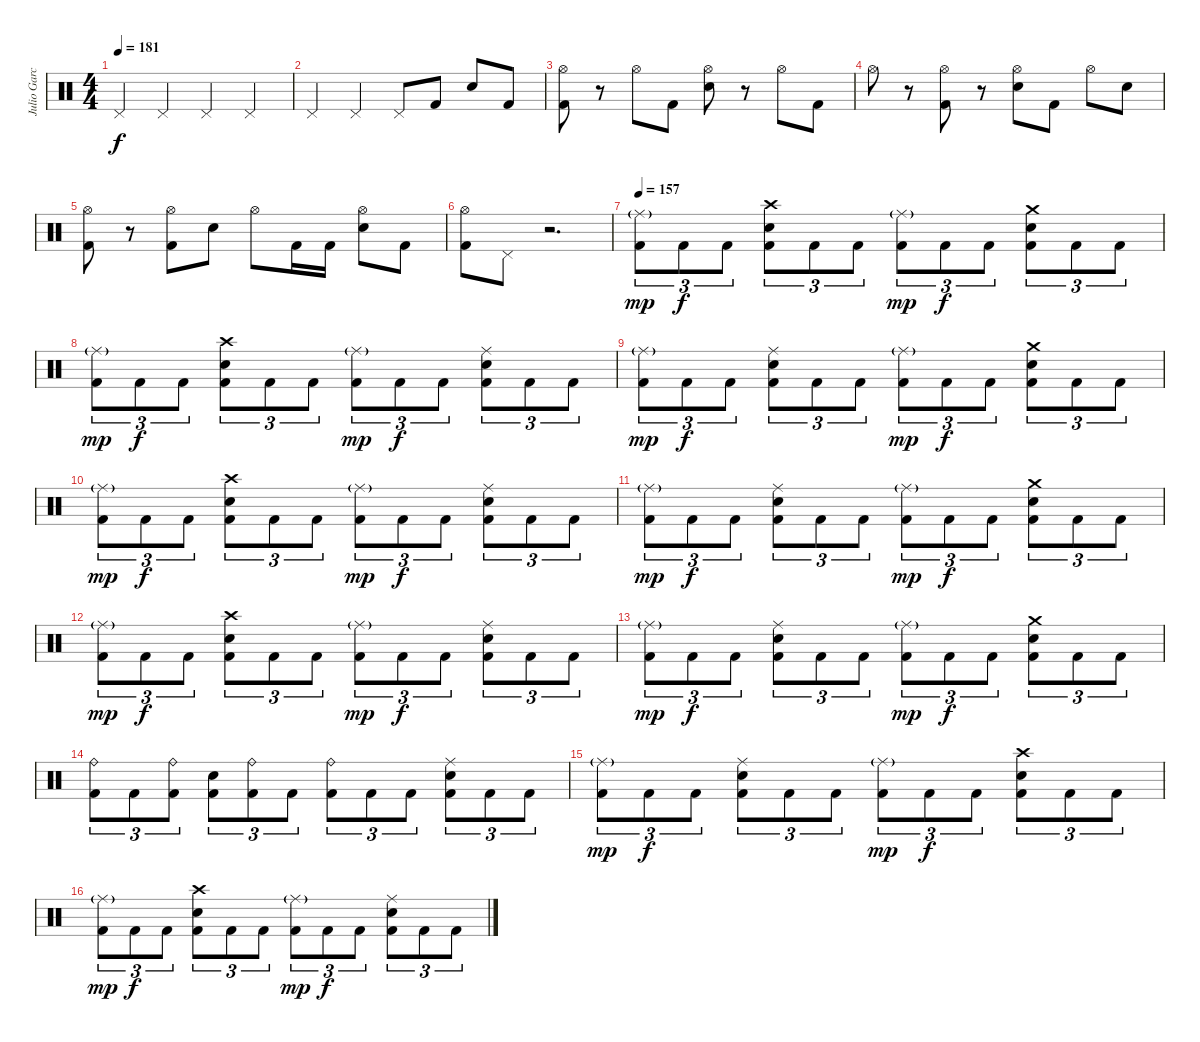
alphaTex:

\track ("Julio Garcia" "Julio Garc") {instrument percussion}
\staff {score}
\articulation defaults
\ts (4 4)
\tempo 181
\clef neutral
\ks c "Pedal Hi-Hat (hit)".4{dy f} "Pedal Hi-Hat (hit)".4 "Pedal Hi-Hat (hit)".4 "Pedal Hi-Hat (hit)".4
|
"Pedal Hi-Hat (hit)".4 "Pedal Hi-Hat (hit)".4 "Pedal Hi-Hat (hit)".8 "Kick (hit) 2".8 "Electric Snare (hit)".8 "Kick (hit) 2".8 |
("Hi-Hat (open)" "Kick (hit) 2").8 r.8 "Hi-Hat (open)".8 "Kick (hit) 2".8 ("Hi-Hat (open)" "Electric Snare (hit)").8 r.8 "Hi-Hat (open)".8 "Kick (hit) 2".8 |
"Hi-Hat (open)".8 r.8 ("Hi-Hat (open)" "Kick (hit) 2").8 r.8 ("Hi-Hat (open)" "Electric Snare (hit)").8 "Kick (hit) 2".8 "Hi-Hat (open)".8 "Electric Snare (hit)".8 |
("Hi-Hat (open)" "Kick (hit) 2").8 r.8 ("Hi-Hat (open)" "Kick (hit) 2").8 "Electric Snare (hit)".8 "Hi-Hat (open)".8 "Kick (hit) 2".16 "Kick (hit) 2".16 ("Hi-Hat (open)" "Electric Snare (hit)").8 "Kick (hit) 2".8 |
("Hi-Hat (open)" "Kick (hit) 2").8 "Pedal Hi-Hat (hit)".8 r.2{d} |
\tempo 157
("Ride (middle)"{g} "Kick (hit) 2").8{tu (3 2) dy mp} "Kick (hit) 2".8{tu (3 2) dy f} "Kick (hit) 2".8{tu (3 2)} ("Crash high (hit)" "Electric Snare (hit)" "Kick (hit) 2").8{tu (3 2)} "Kick (hit) 2".8{tu (3 2)} "Kick (hit) 2".8{tu (3 2)} ("Ride (middle)"{g} "Kick (hit) 2").8{tu (3 2) dy mp} "Kick (hit) 2".8{tu (3 2) dy f} "Kick (hit) 2".8{tu (3 2)} ("Crash medium (hit)" "Electric Snare (hit)" "Kick (hit) 2").8{tu (3 2)} "Kick (hit) 2".8{tu (3 2)} "Kick (hit) 2".8{tu (3 2)} |
("Ride (middle)"{g} "Kick (hit) 2").8{tu (3 2) dy mp} "Kick (hit) 2".8{tu (3 2) dy f} "Kick (hit) 2".8{tu (3 2)} ("Crash high (hit)" "Electric Snare (hit)" "Kick (hit) 2").8{tu (3 2)} "Kick (hit) 2".8{tu (3 2)} "Kick (hit) 2".8{tu (3 2)} ("Ride (middle)"{g} "Kick (hit) 2").8{tu (3 2) dy mp} "Kick (hit) 2".8{tu (3 2) dy f} "Kick (hit) 2".8{tu (3 2)} ("Ride (middle)" "Electric Snare (hit)" "Kick (hit) 2").8{tu (3 2)} "Kick (hit) 2".8{tu (3 2)} "Kick (hit) 2".8{tu (3 2)} |
("Ride (middle)"{g} "Kick (hit) 2").8{tu (3 2) dy mp} "Kick (hit) 2".8{tu (3 2) dy f} "Kick (hit) 2".8{tu (3 2)} ("Ride (middle)" "Electric Snare (hit)" "Kick (hit) 2").8{tu (3 2)} "Kick (hit) 2".8{tu (3 2)} "Kick (hit) 2".8{tu (3 2)} ("Ride (middle)"{g} "Kick (hit) 2").8{tu (3 2) dy mp} "Kick (hit) 2".8{tu (3 2) dy f} "Kick (hit) 2".8{tu (3 2)} ("Crash medium (hit)" "Electric Snare (hit)" "Kick (hit) 2").8{tu (3 2)} "Kick (hit) 2".8{tu (3 2)} "Kick (hit) 2".8{tu (3 2)} |
("Ride (middle)"{g} "Kick (hit) 2").8{tu (3 2) dy mp} "Kick (hit) 2".8{tu (3 2) dy f} "Kick (hit) 2".8{tu (3 2)} ("Crash high (hit)" "Electric Snare (hit)" "Kick (hit) 2").8{tu (3 2)} "Kick (hit) 2".8{tu (3 2)} "Kick (hit) 2".8{tu (3 2)} ("Ride (middle)"{g} "Kick (hit) 2").8{tu (3 2) dy mp} "Kick (hit) 2".8{tu (3 2) dy f} "Kick (hit) 2".8{tu (3 2)} ("Ride (middle)" "Electric Snare (hit)" "Kick (hit) 2").8{tu (3 2)} "Kick (hit) 2".8{tu (3 2)} "Kick (hit) 2".8{tu (3 2)} |
("Ride (middle)"{g} "Kick (hit) 2").8{tu (3 2) dy mp} "Kick (hit) 2".8{tu (3 2) dy f} "Kick (hit) 2".8{tu (3 2)} ("Ride (middle)" "Electric Snare (hit)" "Kick (hit) 2").8{tu (3 2)} "Kick (hit) 2".8{tu (3 2)} "Kick (hit) 2".8{tu (3 2)} ("Ride (middle)"{g} "Kick (hit) 2").8{tu (3 2) dy mp} "Kick (hit) 2".8{tu (3 2) dy f} "Kick (hit) 2".8{tu (3 2)} ("Crash medium (hit)" "Electric Snare (hit)" "Kick (hit) 2").8{tu (3 2)} "Kick (hit) 2".8{tu (3 2)} "Kick (hit) 2".8{tu (3 2)} |
("Ride (middle)"{g} "Kick (hit) 2").8{tu (3 2) dy mp} "Kick (hit) 2".8{tu (3 2) dy f} "Kick (hit) 2".8{tu (3 2)} ("Crash high (hit)" "Electric Snare (hit)" "Kick (hit) 2").8{tu (3 2)} "Kick (hit) 2".8{tu (3 2)} "Kick (hit) 2".8{tu (3 2)} ("Ride (middle)"{g} "Kick (hit) 2").8{tu (3 2) dy mp} "Kick (hit) 2".8{tu (3 2) dy f} "Kick (hit) 2".8{tu (3 2)} ("Ride (middle)" "Electric Snare (hit)" "Kick (hit) 2").8{tu (3 2)} "Kick (hit) 2".8{tu (3 2)} "Kick (hit) 2".8{tu (3 2)} |
("Ride (middle)"{g} "Kick (hit) 2").8{tu (3 2) dy mp} "Kick (hit) 2".8{tu (3 2) dy f} "Kick (hit) 2".8{tu (3 2)} ("Ride (middle)" "Electric Snare (hit)" "Kick (hit) 2").8{tu (3 2)} "Kick (hit) 2".8{tu (3 2)} "Kick (hit) 2".8{tu (3 2)} ("Ride (middle)"{g} "Kick (hit) 2").8{tu (3 2) dy mp} "Kick (hit) 2".8{tu (3 2) dy f} "Kick (hit) 2".8{tu (3 2)} ("Crash medium (hit)" "Electric Snare (hit)" "Kick (hit) 2").8{tu (3 2)} "Kick (hit) 2".8{tu (3 2)} "Kick (hit) 2".8{tu (3 2)} |
("Ride (bell)" "Kick (hit) 2").8{tu (3 2)} "Kick (hit) 2".8{tu (3 2)} ("Ride (bell)" "Kick (hit) 2").8{tu (3 2)} ("Electric Snare (hit)" "Kick (hit) 2").8{tu (3 2)} ("Ride (bell)" "Kick (hit) 2").8{tu (3 2)} "Kick (hit) 2".8{tu (3 2)} ("Ride (bell)" "Kick (hit) 2").8{tu (3 2)} "Kick (hit) 2".8{tu (3 2)} "Kick (hit) 2".8{tu (3 2)} ("Ride (middle)" "Electric Snare (hit)" "Kick (hit) 2").8{tu (3 2)} "Kick (hit) 2".8{tu (3 2)} "Kick (hit) 2".8{tu (3 2)} |
("Ride (middle)"{g} "Kick (hit) 2").8{tu (3 2) dy mp} "Kick (hit) 2".8{tu (3 2) dy f} "Kick (hit) 2".8{tu (3 2)} ("Ride (middle)" "Electric Snare (hit)" "Kick (hit) 2").8{tu (3 2)} "Kick (hit) 2".8{tu (3 2)} "Kick (hit) 2".8{tu (3 2)} ("Ride (middle)"{g} "Kick (hit) 2").8{tu (3 2) dy mp} "Kick (hit) 2".8{tu (3 2) dy f} "Kick (hit) 2".8{tu (3 2)} ("Crash high (hit)" "Electric Snare (hit)" "Kick (hit) 2").8{tu (3 2)} "Kick (hit) 2".8{tu (3 2)} "Kick (hit) 2".8{tu (3 2)} |
("Ride (middle)"{g} "Kick (hit) 2").8{tu (3 2) dy mp} "Kick (hit) 2".8{tu (3 2) dy f} "Kick (hit) 2".8{tu (3 2)} ("Crash high (hit)" "Electric Snare (hit)" "Kick (hit) 2").8{tu (3 2)} "Kick (hit) 2".8{tu (3 2)} "Kick (hit) 2".8{tu (3 2)} ("Ride (middle)"{g} "Kick (hit) 2").8{tu (3 2) dy mp} "Kick (hit) 2".8{tu (3 2) dy f} "Kick (hit) 2".8{tu (3 2)} ("Ride (middle)" "Electric Snare (hit)" "Kick (hit) 2").8{tu (3 2)} "Kick (hit) 2".8{tu (3 2)} "Kick (hit) 2".8{tu (3 2)}
